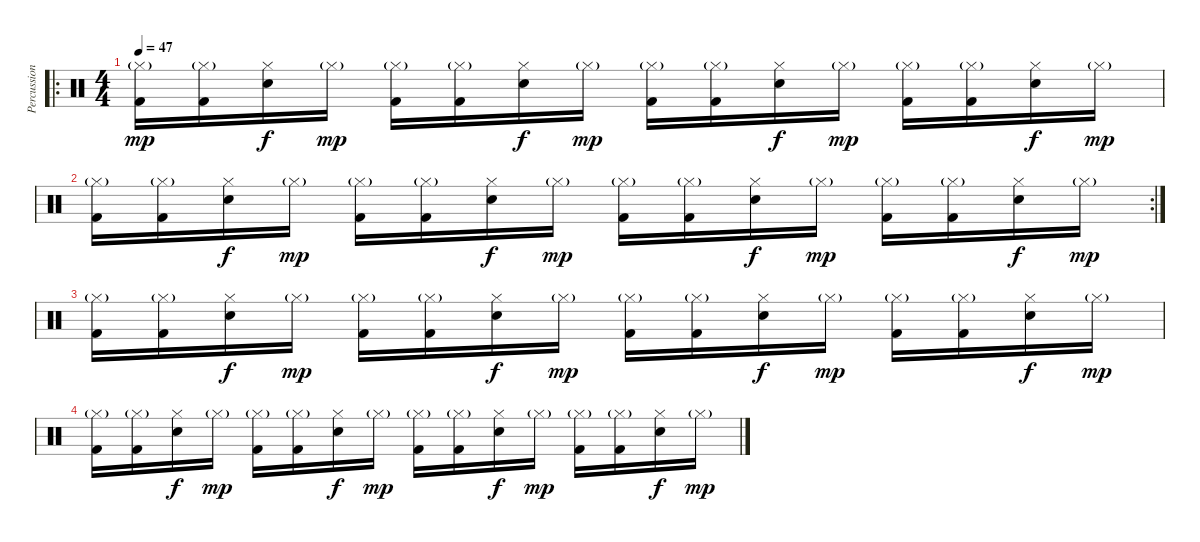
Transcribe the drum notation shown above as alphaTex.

\track ("Percussion" "Percussion") {instrument percussion}
\staff {score}
\articulation defaults
\ro
\ts (4 4)
\tempo 47
\clef neutral
\ks c
("Hi-Hat (closed)"{g} "Kick (hit) 2").16{dy mp} ("Hi-Hat (closed)"{g} "Kick (hit) 2").16 ("Hi-Hat (closed)" "Electric Snare (hit)").16{dy f} "Hi-Hat (closed)"{g}.16{dy mp} ("Hi-Hat (closed)"{g} "Kick (hit) 2").16 ("Hi-Hat (closed)"{g} "Kick (hit) 2").16 ("Hi-Hat (closed)" "Electric Snare (hit)").16{dy f} "Hi-Hat (closed)"{g}.16{dy mp} ("Hi-Hat (closed)"{g} "Kick (hit) 2").16 ("Hi-Hat (closed)"{g} "Kick (hit) 2").16 ("Hi-Hat (closed)" "Electric Snare (hit)").16{dy f} "Hi-Hat (closed)"{g}.16{dy mp} ("Hi-Hat (closed)"{g} "Kick (hit) 2").16 ("Hi-Hat (closed)"{g} "Kick (hit) 2").16 ("Hi-Hat (closed)" "Electric Snare (hit)").16{dy f} "Hi-Hat (closed)"{g}.16{dy mp} |
\rc 2
("Hi-Hat (closed)"{g} "Kick (hit) 2").16 ("Hi-Hat (closed)"{g} "Kick (hit) 2").16 ("Hi-Hat (closed)" "Electric Snare (hit)").16{dy f} "Hi-Hat (closed)"{g}.16{dy mp} ("Hi-Hat (closed)"{g} "Kick (hit) 2").16 ("Hi-Hat (closed)"{g} "Kick (hit) 2").16 ("Hi-Hat (closed)" "Electric Snare (hit)").16{dy f} "Hi-Hat (closed)"{g}.16{dy mp} ("Hi-Hat (closed)"{g} "Kick (hit) 2").16 ("Hi-Hat (closed)"{g} "Kick (hit) 2").16 ("Hi-Hat (closed)" "Electric Snare (hit)").16{dy f} "Hi-Hat (closed)"{g}.16{dy mp} ("Hi-Hat (closed)"{g} "Kick (hit) 2").16 ("Hi-Hat (closed)"{g} "Kick (hit) 2").16 ("Hi-Hat (closed)" "Electric Snare (hit)").16{dy f} "Hi-Hat (closed)"{g}.16{dy mp} |
("Hi-Hat (closed)"{g} "Kick (hit) 2").16 ("Hi-Hat (closed)"{g} "Kick (hit) 2").16 ("Hi-Hat (closed)" "Electric Snare (hit)").16{dy f} "Hi-Hat (closed)"{g}.16{dy mp} ("Hi-Hat (closed)"{g} "Kick (hit) 2").16 ("Hi-Hat (closed)"{g} "Kick (hit) 2").16 ("Hi-Hat (closed)" "Electric Snare (hit)").16{dy f} "Hi-Hat (closed)"{g}.16{dy mp} ("Hi-Hat (closed)"{g} "Kick (hit) 2").16 ("Hi-Hat (closed)"{g} "Kick (hit) 2").16 ("Hi-Hat (closed)" "Electric Snare (hit)").16{dy f} "Hi-Hat (closed)"{g}.16{dy mp} ("Hi-Hat (closed)"{g} "Kick (hit) 2").16 ("Hi-Hat (closed)"{g} "Kick (hit) 2").16 ("Hi-Hat (closed)" "Electric Snare (hit)").16{dy f} "Hi-Hat (closed)"{g}.16{dy mp} |
("Hi-Hat (closed)"{g} "Kick (hit) 2").16 ("Hi-Hat (closed)"{g} "Kick (hit) 2").16 ("Hi-Hat (closed)" "Electric Snare (hit)").16{dy f} "Hi-Hat (closed)"{g}.16{dy mp} ("Hi-Hat (closed)"{g} "Kick (hit) 2").16 ("Hi-Hat (closed)"{g} "Kick (hit) 2").16 ("Hi-Hat (closed)" "Electric Snare (hit)").16{dy f} "Hi-Hat (closed)"{g}.16{dy mp} ("Hi-Hat (closed)"{g} "Kick (hit) 2").16 ("Hi-Hat (closed)"{g} "Kick (hit) 2").16 ("Hi-Hat (closed)" "Electric Snare (hit)").16{dy f} "Hi-Hat (closed)"{g}.16{dy mp} ("Hi-Hat (closed)"{g} "Kick (hit) 2").16 ("Hi-Hat (closed)"{g} "Kick (hit) 2").16 ("Hi-Hat (closed)" "Electric Snare (hit)").16{dy f} "Hi-Hat (closed)"{g}.16{dy mp}
